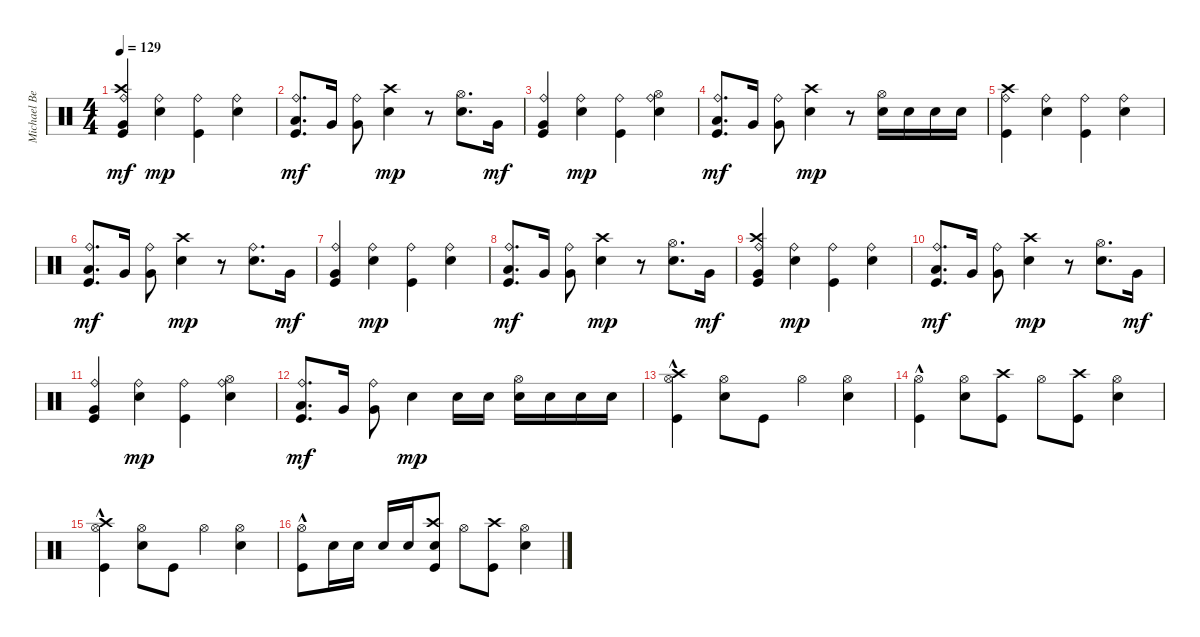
\track ("Michael Beinham" "Michael Be") {instrument percussion}
\staff {score}
\articulation defaults
\ts (4 4)
\tempo 129
\clef neutral
\ks c
("Kick (hit)" "Ride (bell)" "Crash high (hit)" "Very Low Tom (hit)").4{dy mf} ("Snare (hit) 2" "Ride (bell)").4{dy mp} ("Kick (hit)" "Ride (bell)").4 ("Snare (hit) 2" "Ride (bell)").4 |
("Kick (hit)" "Ride (bell)" "Low Tom (hit)").8{d dy mf} "Very Low Tom (hit)".16 ("Ride (bell)" "Very Low Tom (hit)").8 ("Snare (hit) 2" "Crash high (hit)").4{dy mp} r.8 ("Snare (hit) 2" "Hi-Hat (open)").8{d} "Very Low Tom (hit)".16{dy mf} |
("Kick (hit)" "Ride (bell)" "Very Low Tom (hit)").4 ("Snare (hit) 2" "Ride (bell)").4{dy mp} ("Kick (hit)" "Ride (bell)").4 ("Snare (hit) 2" "Hi-Hat (open)" "Ride (bell)").4 |
("Kick (hit)" "Ride (bell)" "Low Tom (hit)").8{d dy mf} "Very Low Tom (hit)".16 ("Ride (bell)" "Very Low Tom (hit)").8 ("Snare (hit) 2" "Crash high (hit)").4{dy mp} r.8 ("Snare (hit) 2" "Hi-Hat (open)").16 "Snare (hit) 2".16 "Snare (hit) 2".16 "Snare (hit) 2".16 |
("Kick (hit)" "Ride (bell)" "Crash high (hit)").4 ("Snare (hit) 2" "Ride (bell)").4 ("Kick (hit)" "Ride (bell)").4 ("Snare (hit) 2" "Ride (bell)").4 |
("Kick (hit)" "Ride (bell)" "Low Tom (hit)").8{d dy mf} "Very Low Tom (hit)".16 ("Ride (bell)" "Very Low Tom (hit)").8 ("Snare (hit) 2" "Crash high (hit)").4{dy mp} r.8 ("Snare (hit) 2" "Ride (bell)").8{d} "Very Low Tom (hit)".16{dy mf} |
("Kick (hit)" "Ride (bell)" "Very Low Tom (hit)").4 ("Snare (hit) 2" "Ride (bell)").4{dy mp} ("Kick (hit)" "Ride (bell)").4 ("Snare (hit) 2" "Ride (bell)").4 |
("Kick (hit)" "Ride (bell)" "Low Tom (hit)").8{d dy mf} "Very Low Tom (hit)".16 ("Ride (bell)" "Very Low Tom (hit)").8 ("Snare (hit) 2" "Crash high (hit)").4{dy mp} r.8 ("Snare (hit) 2" "Hi-Hat (open)").8{d} "Very Low Tom (hit)".16{dy mf} |
("Kick (hit)" "Ride (bell)" "Crash high (hit)" "Very Low Tom (hit)").4 ("Snare (hit) 2" "Ride (bell)").4{dy mp} ("Kick (hit)" "Ride (bell)").4 ("Snare (hit) 2" "Ride (bell)").4 |
("Kick (hit)" "Ride (bell)" "Low Tom (hit)").8{d dy mf} "Very Low Tom (hit)".16 ("Ride (bell)" "Very Low Tom (hit)").8 ("Snare (hit) 2" "Crash high (hit)").4{dy mp} r.8 ("Snare (hit) 2" "Hi-Hat (open)").8{d} "Very Low Tom (hit)".16{dy mf} |
("Kick (hit)" "Ride (bell)" "Very Low Tom (hit)").4 ("Snare (hit) 2" "Ride (bell)").4{dy mp} ("Kick (hit)" "Ride (bell)").4 ("Snare (hit) 2" "Hi-Hat (open)" "Ride (bell)").4 |
("Kick (hit)" "Ride (bell)" "Low Tom (hit)").8{d dy mf} "Very Low Tom (hit)".16 ("Ride (bell)" "Very Low Tom (hit)").8 "Snare (hit) 2".4{dy mp} "Snare (hit) 2".16 "Snare (hit) 2".16 ("Snare (hit) 2" "Hi-Hat (open)").16 "Snare (hit) 2".16 "Snare (hit) 2".16 "Snare (hit) 2".16 |
("Kick (hit)"{hac} "Hi-Hat (open)" "Crash high (hit)").4 ("Snare (hit) 2" "Hi-Hat (open)").8 "Kick (hit)".8 "Hi-Hat (open)".4 ("Snare (hit) 2" "Hi-Hat (open)").4 |
("Kick (hit)"{hac} "Hi-Hat (open)").4 ("Snare (hit) 2" "Hi-Hat (open)").8 ("Kick (hit)" "Crash high (hit)").8 "Hi-Hat (open)".8 ("Kick (hit)" "Crash high (hit)").8 ("Snare (hit) 2" "Hi-Hat (open)").4 |
("Kick (hit)"{hac} "Hi-Hat (open)" "Crash high (hit)").4 ("Snare (hit) 2" "Hi-Hat (open)").8 "Kick (hit)".8 "Hi-Hat (open)".4 ("Snare (hit) 2" "Hi-Hat (open)").4 |
("Kick (hit)"{hac} "Hi-Hat (open)").8 "Snare (hit) 2".16 "Snare (hit) 2".16 "Snare (hit) 2".16 "Snare (hit) 2".16 ("Kick (hit)" "Snare (hit) 2" "Crash high (hit)").8 "Hi-Hat (open)".8 ("Kick (hit)" "Crash high (hit)").8 ("Snare (hit) 2" "Hi-Hat (open)").4
